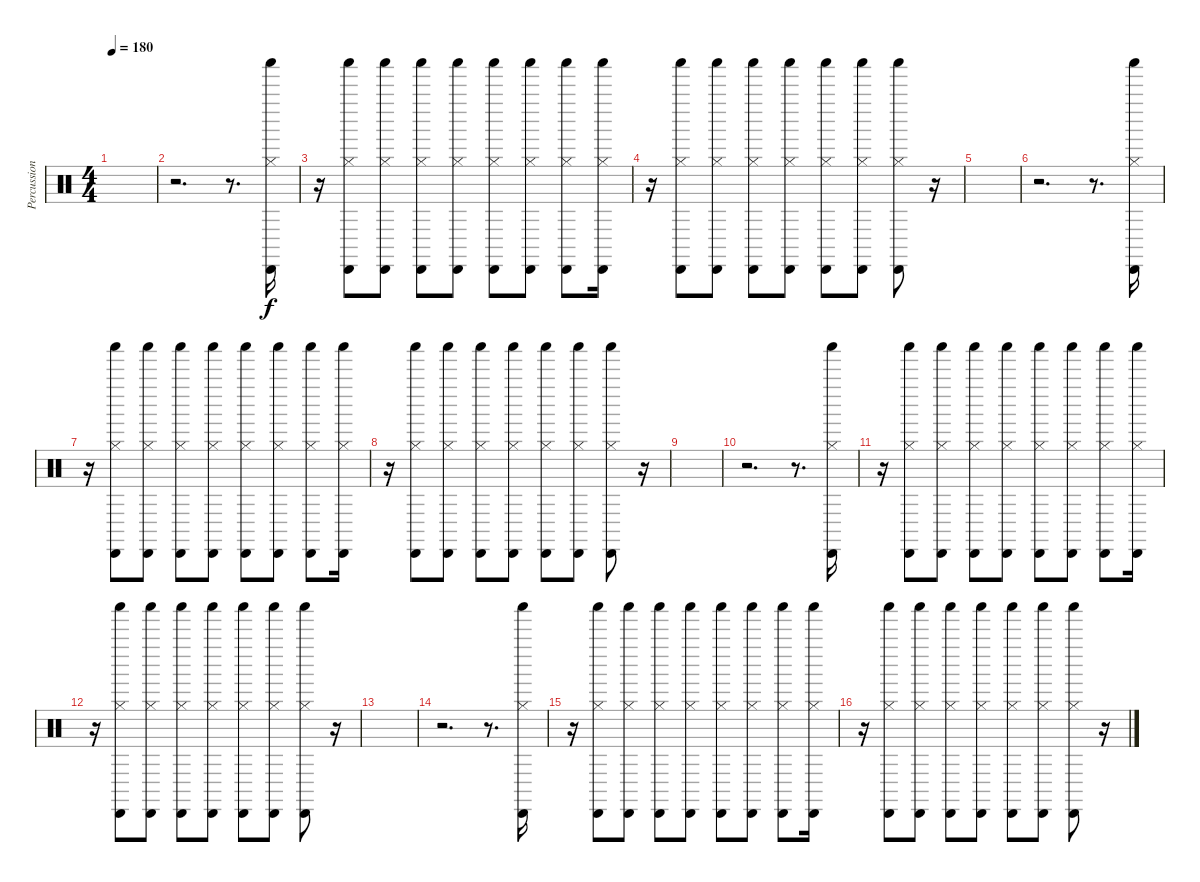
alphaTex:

\track ("Percussion" "Percussion") {instrument percussion}
\staff {score}
\articulation defaults
\ts (4 4)
\tempo 180
\clef neutral
\ks c
|
r.2{d} r.8{d balance 0} ("Cabasa (hit)" "Hi-Hat (closed)" "Shaker (hit)").16{balance 16} |
r.16 ("Cabasa (hit)" "Hi-Hat (closed)" "Shaker (hit)").8 ("Cabasa (hit)" "Hi-Hat (closed)" "Shaker (hit)").8 ("Cabasa (hit)" "Hi-Hat (closed)" "Shaker (hit)").8 ("Cabasa (hit)" "Hi-Hat (closed)" "Shaker (hit)").8 ("Cabasa (hit)" "Hi-Hat (closed)" "Shaker (hit)").8 ("Cabasa (hit)" "Hi-Hat (closed)" "Shaker (hit)").8 ("Cabasa (hit)" "Hi-Hat (closed)" "Shaker (hit)").8 ("Cabasa (hit)" "Hi-Hat (closed)" "Shaker (hit)").16 |
r.16 ("Cabasa (hit)" "Hi-Hat (closed)" "Shaker (hit)").8 ("Cabasa (hit)" "Hi-Hat (closed)" "Shaker (hit)").8 ("Cabasa (hit)" "Hi-Hat (closed)" "Shaker (hit)").8 ("Cabasa (hit)" "Hi-Hat (closed)" "Shaker (hit)").8 ("Cabasa (hit)" "Hi-Hat (closed)" "Shaker (hit)").8 ("Cabasa (hit)" "Hi-Hat (closed)" "Shaker (hit)").8 ("Cabasa (hit)" "Hi-Hat (closed)" "Shaker (hit)").8 r.16 |
|
r.2{d} r.8{d balance 0} ("Cabasa (hit)" "Hi-Hat (closed)" "Shaker (hit)").16{balance 16} |
r.16 ("Cabasa (hit)" "Hi-Hat (closed)" "Shaker (hit)").8 ("Cabasa (hit)" "Hi-Hat (closed)" "Shaker (hit)").8 ("Cabasa (hit)" "Hi-Hat (closed)" "Shaker (hit)").8 ("Cabasa (hit)" "Hi-Hat (closed)" "Shaker (hit)").8 ("Cabasa (hit)" "Hi-Hat (closed)" "Shaker (hit)").8 ("Cabasa (hit)" "Hi-Hat (closed)" "Shaker (hit)").8 ("Cabasa (hit)" "Hi-Hat (closed)" "Shaker (hit)").8 ("Cabasa (hit)" "Hi-Hat (closed)" "Shaker (hit)").16 |
r.16 ("Cabasa (hit)" "Hi-Hat (closed)" "Shaker (hit)").8 ("Cabasa (hit)" "Hi-Hat (closed)" "Shaker (hit)").8 ("Cabasa (hit)" "Hi-Hat (closed)" "Shaker (hit)").8 ("Cabasa (hit)" "Hi-Hat (closed)" "Shaker (hit)").8 ("Cabasa (hit)" "Hi-Hat (closed)" "Shaker (hit)").8 ("Cabasa (hit)" "Hi-Hat (closed)" "Shaker (hit)").8 ("Cabasa (hit)" "Hi-Hat (closed)" "Shaker (hit)").8 r.16 |
|
r.2{d} r.8{d balance 0} ("Cabasa (hit)" "Hi-Hat (closed)" "Shaker (hit)").16{balance 16} |
r.16 ("Cabasa (hit)" "Hi-Hat (closed)" "Shaker (hit)").8 ("Cabasa (hit)" "Hi-Hat (closed)" "Shaker (hit)").8 ("Cabasa (hit)" "Hi-Hat (closed)" "Shaker (hit)").8 ("Cabasa (hit)" "Hi-Hat (closed)" "Shaker (hit)").8 ("Cabasa (hit)" "Hi-Hat (closed)" "Shaker (hit)").8 ("Cabasa (hit)" "Hi-Hat (closed)" "Shaker (hit)").8 ("Cabasa (hit)" "Hi-Hat (closed)" "Shaker (hit)").8 ("Cabasa (hit)" "Hi-Hat (closed)" "Shaker (hit)").16 |
r.16 ("Cabasa (hit)" "Hi-Hat (closed)" "Shaker (hit)").8 ("Cabasa (hit)" "Hi-Hat (closed)" "Shaker (hit)").8 ("Cabasa (hit)" "Hi-Hat (closed)" "Shaker (hit)").8 ("Cabasa (hit)" "Hi-Hat (closed)" "Shaker (hit)").8 ("Cabasa (hit)" "Hi-Hat (closed)" "Shaker (hit)").8 ("Cabasa (hit)" "Hi-Hat (closed)" "Shaker (hit)").8 ("Cabasa (hit)" "Hi-Hat (closed)" "Shaker (hit)").8 r.16 |
|
r.2{d} r.8{d balance 0} ("Cabasa (hit)" "Hi-Hat (closed)" "Shaker (hit)").16{balance 16} |
r.16 ("Cabasa (hit)" "Hi-Hat (closed)" "Shaker (hit)").8 ("Cabasa (hit)" "Hi-Hat (closed)" "Shaker (hit)").8 ("Cabasa (hit)" "Hi-Hat (closed)" "Shaker (hit)").8 ("Cabasa (hit)" "Hi-Hat (closed)" "Shaker (hit)").8 ("Cabasa (hit)" "Hi-Hat (closed)" "Shaker (hit)").8 ("Cabasa (hit)" "Hi-Hat (closed)" "Shaker (hit)").8 ("Cabasa (hit)" "Hi-Hat (closed)" "Shaker (hit)").8 ("Cabasa (hit)" "Hi-Hat (closed)" "Shaker (hit)").16 |
r.16 ("Cabasa (hit)" "Hi-Hat (closed)" "Shaker (hit)").8 ("Cabasa (hit)" "Hi-Hat (closed)" "Shaker (hit)").8 ("Cabasa (hit)" "Hi-Hat (closed)" "Shaker (hit)").8 ("Cabasa (hit)" "Hi-Hat (closed)" "Shaker (hit)").8 ("Cabasa (hit)" "Hi-Hat (closed)" "Shaker (hit)").8 ("Cabasa (hit)" "Hi-Hat (closed)" "Shaker (hit)").8 ("Cabasa (hit)" "Hi-Hat (closed)" "Shaker (hit)").8 r.16
